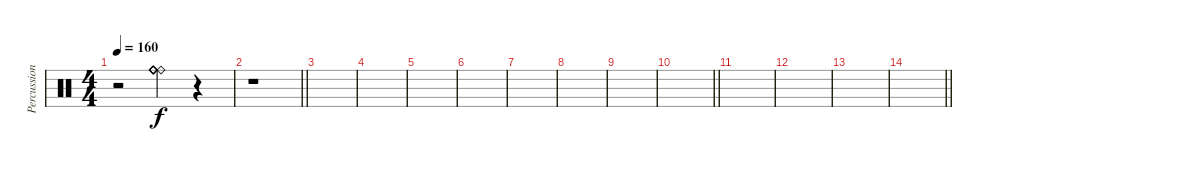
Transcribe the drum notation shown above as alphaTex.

\track ("Percussion" "Percussion") {instrument percussion}
\staff {score}
\articulation defaults
\ts (4 4)
\tempo 160
\clef neutral
\ks c
r.2{dy f} ("Ride (bell)" "Ride (bell)" "Ride (bell)" "Ride (bell)" "Ride (bell)" "Ride (bell)").4 r.4 |
\barLineRight lightlight
r.1 |
|
|
|
|
|
|
|
\barLineRight lightlight
|
|
|
|
\barLineRight lightlight
